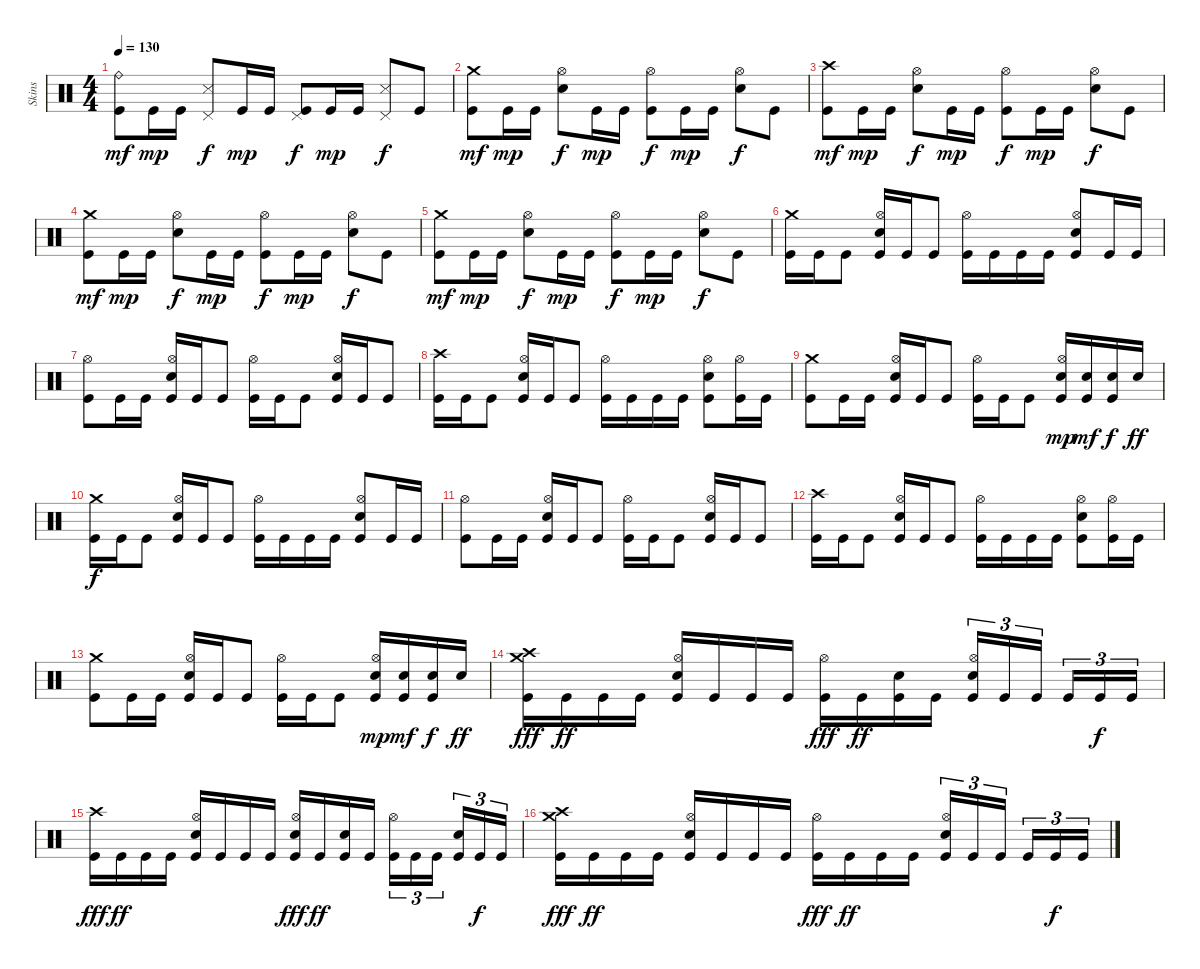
\track ("Skins" "Skins") {instrument percussion}
\staff {score}
\articulation defaults
\ts (4 4)
\tempo 130
\clef neutral
\ks c
("Ride (bell)" "Kick (hit)").8{dy mf} "Kick (hit)".16{dy mp} "Kick (hit)".16 ("Pedal Hi-Hat (hit)" "Snare (side stick) 3").8{dy f} "Kick (hit)".16{dy mp} "Kick (hit)".16 ("Pedal Hi-Hat (hit)" "Kick (hit)").8{dy f} "Kick (hit)".16{dy mp} "Kick (hit)".16 ("Pedal Hi-Hat (hit)" "Snare (side stick) 3").8{dy f} "Kick (hit)".8 |
("Crash medium (hit)" "Kick (hit)").8{dy mf} "Kick (hit)".16{dy mp} "Kick (hit)".16 ("Hi-Hat (open)" "Snare (hit) 2").8{dy f} "Kick (hit)".16{dy mp} "Kick (hit)".16 ("Hi-Hat (open)" "Kick (hit)").8{dy f} "Kick (hit)".16{dy mp} "Kick (hit)".16 ("Hi-Hat (open)" "Snare (hit) 2").8{dy f} "Kick (hit)".8 |
("Crash high (hit)" "Kick (hit)").8{dy mf} "Kick (hit)".16{dy mp} "Kick (hit)".16 ("Hi-Hat (open)" "Snare (hit) 2").8{dy f} "Kick (hit)".16{dy mp} "Kick (hit)".16 ("Hi-Hat (open)" "Kick (hit)").8{dy f} "Kick (hit)".16{dy mp} "Kick (hit)".16 ("Hi-Hat (open)" "Snare (hit) 2").8{dy f} "Kick (hit)".8 |
("Crash medium (hit)" "Kick (hit)").8{dy mf} "Kick (hit)".16{dy mp} "Kick (hit)".16 ("Hi-Hat (open)" "Snare (hit) 2").8{dy f} "Kick (hit)".16{dy mp} "Kick (hit)".16 ("Hi-Hat (open)" "Kick (hit)").8{dy f} "Kick (hit)".16{dy mp} "Kick (hit)".16 ("Hi-Hat (open)" "Snare (hit) 2").8{dy f} "Kick (hit)".8 |
("Crash medium (hit)" "Kick (hit)").8{dy mf} "Kick (hit)".16{dy mp} "Kick (hit)".16 ("Hi-Hat (open)" "Snare (hit) 2").8{dy f} "Kick (hit)".16{dy mp} "Kick (hit)".16 ("Hi-Hat (open)" "Kick (hit)").8{dy f} "Kick (hit)".16{dy mp} "Kick (hit)".16 ("Hi-Hat (open)" "Snare (hit) 2").8{dy f} "Kick (hit)".8 |
("Crash medium (hit)" "Kick (hit)").16 "Kick (hit)".16 "Kick (hit)".8 ("Hi-Hat (open)" "Snare (hit) 2" "Kick (hit)").16 "Kick (hit)".16 "Kick (hit)".8 ("Hi-Hat (open)" "Kick (hit)").16 "Kick (hit)".16 "Kick (hit)".16 "Kick (hit)".16 ("Hi-Hat (open)" "Snare (hit) 2" "Kick (hit)").8 "Kick (hit)".16 "Kick (hit)".16 |
("Hi-Hat (open)" "Kick (hit)").8 "Kick (hit)".16 "Kick (hit)".16 ("Hi-Hat (open)" "Snare (hit) 2" "Kick (hit)").16 "Kick (hit)".16 "Kick (hit)".8 ("Hi-Hat (open)" "Kick (hit)").16 "Kick (hit)".16 "Kick (hit)".8 ("Hi-Hat (open)" "Snare (hit) 2" "Kick (hit)").16 "Kick (hit)".16 "Kick (hit)".8 |
("Crash high (hit)" "Kick (hit)").16 "Kick (hit)".16 "Kick (hit)".8 ("Hi-Hat (open)" "Snare (hit) 2" "Kick (hit)").16 "Kick (hit)".16 "Kick (hit)".8 ("Hi-Hat (open)" "Kick (hit)").16 "Kick (hit)".16 "Kick (hit)".16 "Kick (hit)".16 ("Hi-Hat (open)" "Snare (hit) 2" "Kick (hit)").8 ("Hi-Hat (open)" "Kick (hit)").16 "Kick (hit)".16 |
("Crash medium (hit)" "Kick (hit)").8 "Kick (hit)".16 "Kick (hit)".16 ("Hi-Hat (open)" "Snare (hit) 2" "Kick (hit)").16 "Kick (hit)".16 "Kick (hit)".8 ("Hi-Hat (open)" "Kick (hit)").16 "Kick (hit)".16 "Kick (hit)".8 ("Hi-Hat (open)" "Snare (hit) 2" "Kick (hit)").16{dy mp} ("Snare (hit) 2" "Kick (hit)").16{dy mf} ("Snare (hit) 2" "Kick (hit)").16{dy f} "Snare (hit) 2".16{dy ff} |
("Crash medium (hit)" "Kick (hit)").16{dy f} "Kick (hit)".16 "Kick (hit)".8 ("Hi-Hat (open)" "Electric Snare (hit)" "Kick (hit)").16 "Kick (hit)".16 "Kick (hit)".8 ("Hi-Hat (open)" "Kick (hit)").16 "Kick (hit)".16 "Kick (hit)".16 "Kick (hit)".16 ("Hi-Hat (open)" "Electric Snare (hit)" "Kick (hit)").8 "Kick (hit)".16 "Kick (hit)".16 |
("Hi-Hat (open)" "Kick (hit)").8 "Kick (hit)".16 "Kick (hit)".16 ("Hi-Hat (open)" "Electric Snare (hit)" "Kick (hit)").16 "Kick (hit)".16 "Kick (hit)".8 ("Hi-Hat (open)" "Kick (hit)").16 "Kick (hit)".16 "Kick (hit)".8 ("Hi-Hat (open)" "Electric Snare (hit)" "Kick (hit)").16 "Kick (hit)".16 "Kick (hit)".8 |
("Crash high (hit)" "Kick (hit)").16 "Kick (hit)".16 "Kick (hit)".8 ("Hi-Hat (open)" "Electric Snare (hit)" "Kick (hit)").16 "Kick (hit)".16 "Kick (hit)".8 ("Hi-Hat (open)" "Kick (hit)").16 "Kick (hit)".16 "Kick (hit)".16 "Kick (hit)".16 ("Hi-Hat (open)" "Electric Snare (hit)" "Kick (hit)").8 ("Hi-Hat (open)" "Kick (hit)").16 "Kick (hit)".16 |
("Crash medium (hit)" "Kick (hit)").8 "Kick (hit)".16 "Kick (hit)".16 ("Hi-Hat (open)" "Electric Snare (hit)" "Kick (hit)").16 "Kick (hit)".16 "Kick (hit)".8 ("Hi-Hat (open)" "Kick (hit)").16 "Kick (hit)".16 "Kick (hit)".8 ("Hi-Hat (open)" "Electric Snare (hit)" "Kick (hit)").16{dy mp} ("Electric Snare (hit)" "Kick (hit)").16{dy mf} ("Electric Snare (hit)" "Kick (hit)").16{dy f} "Electric Snare (hit)".16{dy ff} |
("Crash high (hit)" "Crash medium (hit)" "Kick (hit)").16{dy fff} "Kick (hit)".16{dy ff} "Kick (hit)".16 "Kick (hit)".16 ("Hi-Hat (open)" "Electric Snare (hit)" "Kick (hit)").16 "Kick (hit)".16 "Kick (hit)".16 "Kick (hit)".16 ("Hi-Hat (open)" "Kick (hit)").16{dy fff} "Kick (hit)".16{dy ff} ("Electric Snare (hit)" "Kick (hit)").16 "Kick (hit)".16 ("Hi-Hat (open)" "Electric Snare (hit)" "Kick (hit)").16{tu (3 2)} "Kick (hit)".16{tu (3 2)} "Kick (hit)".16{tu (3 2)} "Kick (hit)".16{tu (3 2)} "Kick (hit)".16{tu (3 2) dy f} "Kick (hit)".16{tu (3 2)} |
("Crash high (hit)" "Kick (hit)").16{dy fff} "Kick (hit)".16{dy ff} "Kick (hit)".16 "Kick (hit)".16 ("Hi-Hat (open)" "Electric Snare (hit)" "Kick (hit)").16 "Kick (hit)".16 "Kick (hit)".16 "Kick (hit)".16 ("Hi-Hat (open)" "Electric Snare (hit)" "Kick (hit)").16{dy fff} "Kick (hit)".16{dy ff} ("Electric Snare (hit)" "Kick (hit)").16 "Kick (hit)".16 ("Hi-Hat (open)" "Kick (hit)").16{tu (3 2)} "Kick (hit)".16{tu (3 2)} "Kick (hit)".16{tu (3 2)} ("Electric Snare (hit)" "Kick (hit)").16{tu (3 2)} "Kick (hit)".16{tu (3 2) dy f} "Kick (hit)".16{tu (3 2)} |
("Crash high (hit)" "Crash medium (hit)" "Kick (hit)").16{dy fff} "Kick (hit)".16{dy ff} "Kick (hit)".16 "Kick (hit)".16 ("Hi-Hat (open)" "Electric Snare (hit)" "Kick (hit)").16 "Kick (hit)".16 "Kick (hit)".16 "Kick (hit)".16 ("Hi-Hat (open)" "Kick (hit)").16{dy fff} "Kick (hit)".16{dy ff} "Kick (hit)".16 "Kick (hit)".16 ("Hi-Hat (open)" "Electric Snare (hit)" "Kick (hit)").16{tu (3 2)} "Kick (hit)".16{tu (3 2)} "Kick (hit)".16{tu (3 2)} "Kick (hit)".16{tu (3 2)} "Kick (hit)".16{tu (3 2) dy f} "Kick (hit)".16{tu (3 2)}
